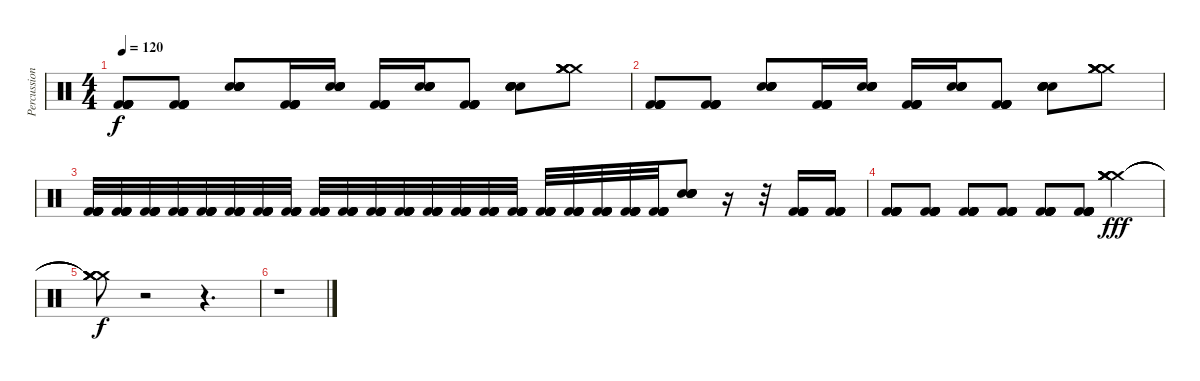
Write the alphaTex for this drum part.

\track ("Percussion" "Percussion") {instrument percussion}
\staff {score}
\articulation defaults
\ts (4 4)
\tempo 120
\clef neutral
\ks c
("Kick (hit) 2" "Kick (hit) 2" "Kick (hit) 2" "Kick (hit) 2" "Kick (hit) 2").8{dy f} ("Kick (hit) 2" "Kick (hit) 2" "Kick (hit) 2" "Kick (hit) 2" "Kick (hit) 2").8 ("Snare (hit) 2" "Snare (hit) 2" "Snare (hit) 2" "Snare (hit) 2" "Snare (hit) 2").8 ("Kick (hit) 2" "Kick (hit) 2" "Kick (hit) 2" "Kick (hit) 2" "Kick (hit) 2").16 ("Snare (hit) 2" "Snare (hit) 2" "Snare (hit) 2" "Snare (hit) 2" "Snare (hit) 2").16 ("Kick (hit) 2" "Kick (hit) 2" "Kick (hit) 2" "Kick (hit) 2" "Kick (hit) 2").16 ("Snare (hit) 2" "Snare (hit) 2" "Snare (hit) 2" "Snare (hit) 2" "Snare (hit) 2").16 ("Kick (hit) 2" "Kick (hit) 2" "Kick (hit) 2" "Kick (hit) 2" "Kick (hit) 2").8 ("Snare (hit) 2" "Snare (hit) 2" "Snare (hit) 2" "Snare (hit) 2" "Snare (hit) 2").8 ("Crash medium (hit)" "Crash medium (hit)" "Crash medium (hit)" "Crash medium (hit)" "Crash medium (hit)" "Crash medium (hit)").8 |
("Kick (hit) 2" "Kick (hit) 2" "Kick (hit) 2" "Kick (hit) 2" "Kick (hit) 2").8 ("Kick (hit) 2" "Kick (hit) 2" "Kick (hit) 2" "Kick (hit) 2" "Kick (hit) 2").8 ("Snare (hit) 2" "Snare (hit) 2" "Snare (hit) 2" "Snare (hit) 2" "Snare (hit) 2").8 ("Kick (hit) 2" "Kick (hit) 2" "Kick (hit) 2" "Kick (hit) 2" "Kick (hit) 2").16 ("Snare (hit) 2" "Snare (hit) 2" "Snare (hit) 2" "Snare (hit) 2" "Snare (hit) 2").16 ("Kick (hit) 2" "Kick (hit) 2" "Kick (hit) 2" "Kick (hit) 2" "Kick (hit) 2").16 ("Snare (hit) 2" "Snare (hit) 2" "Snare (hit) 2" "Snare (hit) 2" "Snare (hit) 2").16 ("Kick (hit) 2" "Kick (hit) 2" "Kick (hit) 2" "Kick (hit) 2" "Kick (hit) 2").8 ("Snare (hit) 2" "Snare (hit) 2" "Snare (hit) 2" "Snare (hit) 2" "Snare (hit) 2").8 ("Crash medium (hit)" "Crash medium (hit)" "Crash medium (hit)" "Crash medium (hit)" "Crash medium (hit)" "Crash medium (hit)").8 |
("Kick (hit) 2" "Kick (hit) 2" "Kick (hit) 2" "Kick (hit) 2" "Kick (hit) 2").32 ("Kick (hit) 2" "Kick (hit) 2" "Kick (hit) 2" "Kick (hit) 2" "Kick (hit) 2").32 ("Kick (hit) 2" "Kick (hit) 2" "Kick (hit) 2" "Kick (hit) 2" "Kick (hit) 2").32 ("Kick (hit) 2" "Kick (hit) 2" "Kick (hit) 2" "Kick (hit) 2" "Kick (hit) 2").32 ("Kick (hit) 2" "Kick (hit) 2" "Kick (hit) 2" "Kick (hit) 2" "Kick (hit) 2").32 ("Kick (hit) 2" "Kick (hit) 2" "Kick (hit) 2" "Kick (hit) 2" "Kick (hit) 2").32 ("Kick (hit) 2" "Kick (hit) 2" "Kick (hit) 2" "Kick (hit) 2" "Kick (hit) 2").32 ("Kick (hit) 2" "Kick (hit) 2" "Kick (hit) 2" "Kick (hit) 2" "Kick (hit) 2").32 ("Kick (hit) 2" "Kick (hit) 2" "Kick (hit) 2" "Kick (hit) 2" "Kick (hit) 2").32 ("Kick (hit) 2" "Kick (hit) 2" "Kick (hit) 2" "Kick (hit) 2" "Kick (hit) 2").32 ("Kick (hit) 2" "Kick (hit) 2" "Kick (hit) 2" "Kick (hit) 2" "Kick (hit) 2").32 ("Kick (hit) 2" "Kick (hit) 2" "Kick (hit) 2" "Kick (hit) 2" "Kick (hit) 2").32 ("Kick (hit) 2" "Kick (hit) 2" "Kick (hit) 2" "Kick (hit) 2" "Kick (hit) 2").32 ("Kick (hit) 2" "Kick (hit) 2" "Kick (hit) 2" "Kick (hit) 2" "Kick (hit) 2").32 ("Kick (hit) 2" "Kick (hit) 2" "Kick (hit) 2" "Kick (hit) 2" "Kick (hit) 2").32 ("Kick (hit) 2" "Kick (hit) 2" "Kick (hit) 2" "Kick (hit) 2" "Kick (hit) 2").32 ("Kick (hit) 2" "Kick (hit) 2" "Kick (hit) 2" "Kick (hit) 2" "Kick (hit) 2").32 ("Kick (hit) 2" "Kick (hit) 2" "Kick (hit) 2" "Kick (hit) 2" "Kick (hit) 2").32 ("Kick (hit) 2" "Kick (hit) 2" "Kick (hit) 2" "Kick (hit) 2" "Kick (hit) 2").32 ("Kick (hit) 2" "Kick (hit) 2" "Kick (hit) 2" "Kick (hit) 2" "Kick (hit) 2").32 ("Kick (hit) 2" "Kick (hit) 2" "Kick (hit) 2" "Kick (hit) 2" "Kick (hit) 2").32 ("Snare (hit) 2" "Snare (hit) 2" "Snare (hit) 2" "Snare (hit) 2" "Snare (hit) 2").8 r.16 r.32 ("Kick (hit) 2" "Kick (hit) 2" "Kick (hit) 2" "Kick (hit) 2" "Kick (hit) 2").16 ("Kick (hit) 2" "Kick (hit) 2" "Kick (hit) 2" "Kick (hit) 2" "Kick (hit) 2").16 |
("Kick (hit) 2" "Kick (hit) 2" "Kick (hit) 2" "Kick (hit) 2" "Kick (hit) 2" "Kick (hit) 2").8 ("Kick (hit) 2" "Kick (hit) 2" "Kick (hit) 2" "Kick (hit) 2" "Kick (hit) 2" "Kick (hit) 2").8 ("Kick (hit) 2" "Kick (hit) 2" "Kick (hit) 2" "Kick (hit) 2" "Kick (hit) 2" "Kick (hit) 2").8 ("Kick (hit) 2" "Kick (hit) 2" "Kick (hit) 2" "Kick (hit) 2" "Kick (hit) 2" "Kick (hit) 2").8 ("Kick (hit) 2" "Kick (hit) 2" "Kick (hit) 2" "Kick (hit) 2" "Kick (hit) 2" "Kick (hit) 2").8 ("Kick (hit) 2" "Kick (hit) 2" "Kick (hit) 2" "Kick (hit) 2" "Kick (hit) 2" "Kick (hit) 2").8 ("Crash medium (hit)" "Crash medium (hit)" "Crash medium (hit)" "Crash medium (hit)" "Crash medium (hit)" "Crash medium (hit)").4{dy fff} |
("Crash medium (hit)"{t} "Crash medium (hit)"{t} "Crash medium (hit)"{t} "Crash medium (hit)"{t} "Crash medium (hit)"{t}).8{dy f} r.2 r.4{d} |
r.1
